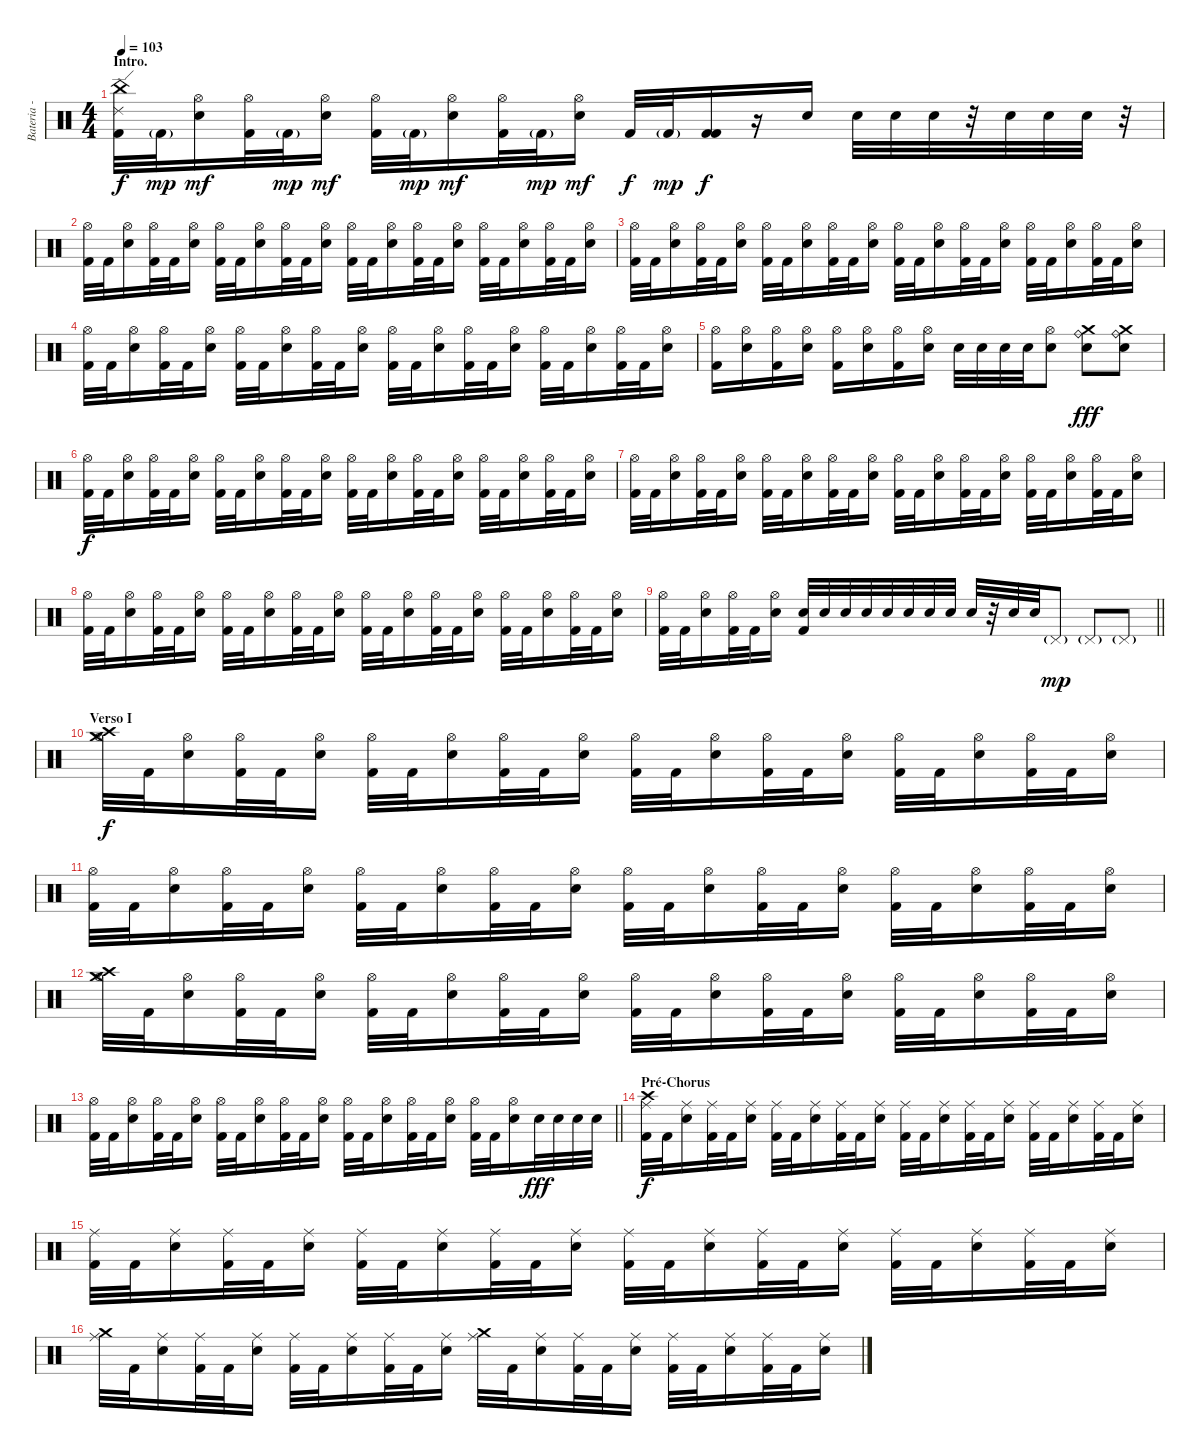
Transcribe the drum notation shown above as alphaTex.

\track ("Bateria - Larzon" "Bateria - ") {instrument percussion}
\staff {score}
\articulation defaults
\ts (4 4)
\section ("" "Intro.")
\tempo 103
\clef neutral
\ks c
("Kick (hit) 2" "Ride (edge) 2" "China (hit)").32{dy f} "Kick (hit) 2"{g}.32{dy mp} ("Snare (hit) 2" "Hi-Hat (open)").16{dy mf} ("Kick (hit) 2" "Hi-Hat (open)").32 "Kick (hit) 2"{g}.32{dy mp} ("Snare (hit) 2" "Hi-Hat (open)").16{dy mf} ("Kick (hit) 2" "Hi-Hat (open)").32 "Kick (hit) 2"{g}.32{dy mp} ("Snare (hit) 2" "Hi-Hat (open)").16{dy mf} ("Kick (hit) 2" "Hi-Hat (open)").32 "Kick (hit) 2"{g}.32{dy mp} ("Snare (hit) 2" "Hi-Hat (open)").16{dy mf} "Kick (hit) 2".32{dy f} "Kick (hit) 2"{g}.32{dy mp} ("Kick (hit) 2" "Kick (hit) 2").16{dy f} r.16 "Snare (hit) 2".16 "Snare (hit) 2".32 "Snare (hit) 2".32 "Snare (hit) 2".32 r.32 "Snare (hit) 2".32 "Snare (hit) 2".32 "Snare (hit) 2".32 r.32 |
("Kick (hit) 2" "Hi-Hat (open)").32 "Kick (hit) 2".32 ("Snare (hit) 2" "Hi-Hat (open)").16 ("Kick (hit) 2" "Hi-Hat (open)").32 "Kick (hit) 2".32 ("Snare (hit) 2" "Hi-Hat (open)").16 ("Kick (hit) 2" "Hi-Hat (open)").32 "Kick (hit) 2".32 ("Snare (hit) 2" "Hi-Hat (open)").16 ("Kick (hit) 2" "Hi-Hat (open)").32 "Kick (hit) 2".32 ("Snare (hit) 2" "Hi-Hat (open)").16 ("Kick (hit) 2" "Hi-Hat (open)").32 "Kick (hit) 2".32 ("Snare (hit) 2" "Hi-Hat (open)").16 ("Kick (hit) 2" "Hi-Hat (open)").32 "Kick (hit) 2".32 ("Snare (hit) 2" "Hi-Hat (open)").16 ("Kick (hit) 2" "Hi-Hat (open)").32 "Kick (hit) 2".32 ("Snare (hit) 2" "Hi-Hat (open)").16 ("Kick (hit) 2" "Hi-Hat (open)").32 "Kick (hit) 2".32 ("Snare (hit) 2" "Hi-Hat (open)").16 |
("Kick (hit) 2" "Hi-Hat (open)").32 "Kick (hit) 2".32 ("Snare (hit) 2" "Hi-Hat (open)").16 ("Kick (hit) 2" "Hi-Hat (open)").32 "Kick (hit) 2".32 ("Snare (hit) 2" "Hi-Hat (open)").16 ("Kick (hit) 2" "Hi-Hat (open)").32 "Kick (hit) 2".32 ("Snare (hit) 2" "Hi-Hat (open)").16 ("Kick (hit) 2" "Hi-Hat (open)").32 "Kick (hit) 2".32 ("Snare (hit) 2" "Hi-Hat (open)").16 ("Kick (hit) 2" "Hi-Hat (open)").32 "Kick (hit) 2".32 ("Snare (hit) 2" "Hi-Hat (open)").16 ("Kick (hit) 2" "Hi-Hat (open)").32 "Kick (hit) 2".32 ("Snare (hit) 2" "Hi-Hat (open)").16 ("Kick (hit) 2" "Hi-Hat (open)").32 "Kick (hit) 2".32 ("Snare (hit) 2" "Hi-Hat (open)").16 ("Kick (hit) 2" "Hi-Hat (open)").32 "Kick (hit) 2".32 ("Snare (hit) 2" "Hi-Hat (open)").16 |
("Kick (hit) 2" "Hi-Hat (open)").32 "Kick (hit) 2".32 ("Snare (hit) 2" "Hi-Hat (open)").16 ("Kick (hit) 2" "Hi-Hat (open)").32 "Kick (hit) 2".32 ("Snare (hit) 2" "Hi-Hat (open)").16 ("Kick (hit) 2" "Hi-Hat (open)").32 "Kick (hit) 2".32 ("Snare (hit) 2" "Hi-Hat (open)").16 ("Kick (hit) 2" "Hi-Hat (open)").32 "Kick (hit) 2".32 ("Snare (hit) 2" "Hi-Hat (open)").16 ("Kick (hit) 2" "Hi-Hat (open)").32 "Kick (hit) 2".32 ("Snare (hit) 2" "Hi-Hat (open)").16 ("Kick (hit) 2" "Hi-Hat (open)").32 "Kick (hit) 2".32 ("Snare (hit) 2" "Hi-Hat (open)").16 ("Kick (hit) 2" "Hi-Hat (open)").32 "Kick (hit) 2".32 ("Snare (hit) 2" "Hi-Hat (open)").16 ("Kick (hit) 2" "Hi-Hat (open)").32 "Kick (hit) 2".32 ("Snare (hit) 2" "Hi-Hat (open)").16 |
("Kick (hit) 2" "Hi-Hat (open)").16 ("Snare (hit) 2" "Hi-Hat (open)").16 ("Kick (hit) 2" "Hi-Hat (open)").16 ("Snare (hit) 2" "Hi-Hat (open)").16 ("Kick (hit) 2" "Hi-Hat (open)").16 ("Snare (hit) 2" "Hi-Hat (open)").16 ("Kick (hit) 2" "Hi-Hat (open)").16 ("Snare (hit) 2" "Hi-Hat (open)").16 "Snare (hit) 2".32 "Snare (hit) 2".32 "Snare (hit) 2".32 "Snare (hit) 2".32 ("Snare (hit) 2" "Hi-Hat (open)").8 ("Snare (hit) 2" "Ride (bell)" "Crash medium (hit)").8{dy fff} ("Snare (hit) 2" "Ride (bell)" "Crash medium (hit)").8 |
("Kick (hit) 2" "Hi-Hat (open)").32{dy f} "Kick (hit) 2".32 ("Snare (hit) 2" "Hi-Hat (open)").16 ("Kick (hit) 2" "Hi-Hat (open)").32 "Kick (hit) 2".32 ("Snare (hit) 2" "Hi-Hat (open)").16 ("Kick (hit) 2" "Hi-Hat (open)").32 "Kick (hit) 2".32 ("Snare (hit) 2" "Hi-Hat (open)").16 ("Kick (hit) 2" "Hi-Hat (open)").32 "Kick (hit) 2".32 ("Snare (hit) 2" "Hi-Hat (open)").16 ("Kick (hit) 2" "Hi-Hat (open)").32 "Kick (hit) 2".32 ("Snare (hit) 2" "Hi-Hat (open)").16 ("Kick (hit) 2" "Hi-Hat (open)").32 "Kick (hit) 2".32 ("Snare (hit) 2" "Hi-Hat (open)").16 ("Kick (hit) 2" "Hi-Hat (open)").32 "Kick (hit) 2".32 ("Snare (hit) 2" "Hi-Hat (open)").16 ("Kick (hit) 2" "Hi-Hat (open)").32 "Kick (hit) 2".32 ("Snare (hit) 2" "Hi-Hat (open)").16 |
("Kick (hit) 2" "Hi-Hat (open)").32 "Kick (hit) 2".32 ("Snare (hit) 2" "Hi-Hat (open)").16 ("Kick (hit) 2" "Hi-Hat (open)").32 "Kick (hit) 2".32 ("Snare (hit) 2" "Hi-Hat (open)").16 ("Kick (hit) 2" "Hi-Hat (open)").32 "Kick (hit) 2".32 ("Snare (hit) 2" "Hi-Hat (open)").16 ("Kick (hit) 2" "Hi-Hat (open)").32 "Kick (hit) 2".32 ("Snare (hit) 2" "Hi-Hat (open)").16 ("Kick (hit) 2" "Hi-Hat (open)").32 "Kick (hit) 2".32 ("Snare (hit) 2" "Hi-Hat (open)").16 ("Kick (hit) 2" "Hi-Hat (open)").32 "Kick (hit) 2".32 ("Snare (hit) 2" "Hi-Hat (open)").16 ("Kick (hit) 2" "Hi-Hat (open)").32 "Kick (hit) 2".32 ("Snare (hit) 2" "Hi-Hat (open)").16 ("Kick (hit) 2" "Hi-Hat (open)").32 "Kick (hit) 2".32 ("Snare (hit) 2" "Hi-Hat (open)").16 |
("Kick (hit) 2" "Hi-Hat (open)").32 "Kick (hit) 2".32 ("Snare (hit) 2" "Hi-Hat (open)").16 ("Kick (hit) 2" "Hi-Hat (open)").32 "Kick (hit) 2".32 ("Snare (hit) 2" "Hi-Hat (open)").16 ("Kick (hit) 2" "Hi-Hat (open)").32 "Kick (hit) 2".32 ("Snare (hit) 2" "Hi-Hat (open)").16 ("Kick (hit) 2" "Hi-Hat (open)").32 "Kick (hit) 2".32 ("Snare (hit) 2" "Hi-Hat (open)").16 ("Kick (hit) 2" "Hi-Hat (open)").32 "Kick (hit) 2".32 ("Snare (hit) 2" "Hi-Hat (open)").16 ("Kick (hit) 2" "Hi-Hat (open)").32 "Kick (hit) 2".32 ("Snare (hit) 2" "Hi-Hat (open)").16 ("Kick (hit) 2" "Hi-Hat (open)").32 "Kick (hit) 2".32 ("Snare (hit) 2" "Hi-Hat (open)").16 ("Kick (hit) 2" "Hi-Hat (open)").32 "Kick (hit) 2".32 ("Snare (hit) 2" "Hi-Hat (open)").16 |
\barLineRight lightlight
("Kick (hit) 2" "Hi-Hat (open)").32 "Kick (hit) 2".32 ("Snare (hit) 2" "Hi-Hat (open)").16 ("Kick (hit) 2" "Hi-Hat (open)").32 "Kick (hit) 2".32 ("Snare (hit) 2" "Hi-Hat (open)").16 ("Snare (hit) 2" "Kick (hit) 2").32 "Snare (hit) 2".32 "Snare (hit) 2".32 "Snare (hit) 2".32 "Snare (hit) 2".32 "Snare (hit) 2".32 "Snare (hit) 2".32 "Snare (hit) 2".32 "Snare (hit) 2".32 r.32 "Snare (hit) 2".32 "Snare (hit) 2".32 "Pedal Hi-Hat (hit)"{g}.8{dy mp} "Pedal Hi-Hat (hit)"{g}.8 "Pedal Hi-Hat (hit)"{g}.8 |
\section ("" "Verso I")
("Crash high (hit)" "Crash medium (hit)" "Hi-Hat (open)").32{dy f} "Kick (hit) 2".32 ("Snare (hit) 2" "Hi-Hat (open)").16 ("Kick (hit) 2" "Hi-Hat (open)").32 "Kick (hit) 2".32 ("Snare (hit) 2" "Hi-Hat (open)").16 ("Kick (hit) 2" "Hi-Hat (open)").32 "Kick (hit) 2".32 ("Snare (hit) 2" "Hi-Hat (open)").16 ("Kick (hit) 2" "Hi-Hat (open)").32 "Kick (hit) 2".32 ("Snare (hit) 2" "Hi-Hat (open)").16 ("Kick (hit) 2" "Hi-Hat (open)").32 "Kick (hit) 2".32 ("Snare (hit) 2" "Hi-Hat (open)").16 ("Kick (hit) 2" "Hi-Hat (open)").32 "Kick (hit) 2".32 ("Snare (hit) 2" "Hi-Hat (open)").16 ("Kick (hit) 2" "Hi-Hat (open)").32 "Kick (hit) 2".32 ("Snare (hit) 2" "Hi-Hat (open)").16 ("Kick (hit) 2" "Hi-Hat (open)").32 "Kick (hit) 2".32 ("Snare (hit) 2" "Hi-Hat (open)").16 |
("Kick (hit) 2" "Hi-Hat (open)").32 "Kick (hit) 2".32 ("Snare (hit) 2" "Hi-Hat (open)").16 ("Kick (hit) 2" "Hi-Hat (open)").32 "Kick (hit) 2".32 ("Snare (hit) 2" "Hi-Hat (open)").16 ("Kick (hit) 2" "Hi-Hat (open)").32 "Kick (hit) 2".32 ("Snare (hit) 2" "Hi-Hat (open)").16 ("Kick (hit) 2" "Hi-Hat (open)").32 "Kick (hit) 2".32 ("Snare (hit) 2" "Hi-Hat (open)").16 ("Kick (hit) 2" "Hi-Hat (open)").32 "Kick (hit) 2".32 ("Snare (hit) 2" "Hi-Hat (open)").16 ("Kick (hit) 2" "Hi-Hat (open)").32 "Kick (hit) 2".32 ("Snare (hit) 2" "Hi-Hat (open)").16 ("Kick (hit) 2" "Hi-Hat (open)").32 "Kick (hit) 2".32 ("Snare (hit) 2" "Hi-Hat (open)").16 ("Kick (hit) 2" "Hi-Hat (open)").32 "Kick (hit) 2".32 ("Snare (hit) 2" "Hi-Hat (open)").16 |
("Crash high (hit)" "Crash medium (hit)" "Hi-Hat (open)").32 "Kick (hit) 2".32 ("Snare (hit) 2" "Hi-Hat (open)").16 ("Kick (hit) 2" "Hi-Hat (open)").32 "Kick (hit) 2".32 ("Snare (hit) 2" "Hi-Hat (open)").16 ("Kick (hit) 2" "Hi-Hat (open)").32 "Kick (hit) 2".32 ("Snare (hit) 2" "Hi-Hat (open)").16 ("Kick (hit) 2" "Hi-Hat (open)").32 "Kick (hit) 2".32 ("Snare (hit) 2" "Hi-Hat (open)").16 ("Kick (hit) 2" "Hi-Hat (open)").32 "Kick (hit) 2".32 ("Snare (hit) 2" "Hi-Hat (open)").16 ("Kick (hit) 2" "Hi-Hat (open)").32 "Kick (hit) 2".32 ("Snare (hit) 2" "Hi-Hat (open)").16 ("Kick (hit) 2" "Hi-Hat (open)").32 "Kick (hit) 2".32 ("Snare (hit) 2" "Hi-Hat (open)").16 ("Kick (hit) 2" "Hi-Hat (open)").32 "Kick (hit) 2".32 ("Snare (hit) 2" "Hi-Hat (open)").16 |
\barLineRight lightlight
("Kick (hit) 2" "Hi-Hat (open)").32 "Kick (hit) 2".32 ("Snare (hit) 2" "Hi-Hat (open)").16 ("Kick (hit) 2" "Hi-Hat (open)").32 "Kick (hit) 2".32 ("Snare (hit) 2" "Hi-Hat (open)").16 ("Kick (hit) 2" "Hi-Hat (open)").32 "Kick (hit) 2".32 ("Snare (hit) 2" "Hi-Hat (open)").16 ("Kick (hit) 2" "Hi-Hat (open)").32 "Kick (hit) 2".32 ("Snare (hit) 2" "Hi-Hat (open)").16 ("Kick (hit) 2" "Hi-Hat (open)").32 "Kick (hit) 2".32 ("Snare (hit) 2" "Hi-Hat (open)").16 ("Kick (hit) 2" "Hi-Hat (open)").32 "Kick (hit) 2".32 ("Snare (hit) 2" "Hi-Hat (open)").16 ("Kick (hit) 2" "Hi-Hat (open)").32 "Kick (hit) 2".32 ("Snare (hit) 2" "Hi-Hat (open)").16 "Snare (hit) 2".32{dy fff} "Snare (hit) 2".32 "Snare (hit) 2".32 "Snare (hit) 2".32 |
\section ("" "Pré-Chorus")
("Kick (hit) 2" "Crash high (hit)" "Ride (middle)").32{dy f} "Kick (hit) 2".32 ("Snare (hit) 2" "Ride (middle)").16 ("Kick (hit) 2" "Ride (middle)").32 "Kick (hit) 2".32 ("Snare (hit) 2" "Ride (middle)").16 ("Kick (hit) 2" "Ride (middle)").32 "Kick (hit) 2".32 ("Snare (hit) 2" "Ride (middle)").16 ("Kick (hit) 2" "Ride (middle)").32 "Kick (hit) 2".32 ("Snare (hit) 2" "Ride (middle)").16 ("Kick (hit) 2" "Ride (middle)").32 "Kick (hit) 2".32 ("Snare (hit) 2" "Ride (middle)").16 ("Kick (hit) 2" "Ride (middle)").32 "Kick (hit) 2".32 ("Snare (hit) 2" "Ride (middle)").16 ("Kick (hit) 2" "Ride (middle)").32 "Kick (hit) 2".32 ("Snare (hit) 2" "Ride (middle)").16 ("Kick (hit) 2" "Ride (middle)").32 "Kick (hit) 2".32 ("Snare (hit) 2" "Ride (middle)").16 |
("Kick (hit) 2" "Ride (middle)").32 "Kick (hit) 2".32 ("Snare (hit) 2" "Ride (middle)").16 ("Kick (hit) 2" "Ride (middle)").32 "Kick (hit) 2".32 ("Snare (hit) 2" "Ride (middle)").16 ("Kick (hit) 2" "Ride (middle)").32 "Kick (hit) 2".32 ("Snare (hit) 2" "Ride (middle)").16 ("Kick (hit) 2" "Ride (middle)").32 "Kick (hit) 2".32 ("Snare (hit) 2" "Ride (middle)").16 ("Kick (hit) 2" "Ride (middle)").32 "Kick (hit) 2".32 ("Snare (hit) 2" "Ride (middle)").16 ("Kick (hit) 2" "Ride (middle)").32 "Kick (hit) 2".32 ("Snare (hit) 2" "Ride (middle)").16 ("Kick (hit) 2" "Ride (middle)").32 "Kick (hit) 2".32 ("Snare (hit) 2" "Ride (middle)").16 ("Kick (hit) 2" "Ride (middle)").32 "Kick (hit) 2".32 ("Snare (hit) 2" "Ride (middle)").16 |
("Crash medium (hit)" "Ride (middle)").32 "Kick (hit) 2".32 ("Snare (hit) 2" "Ride (middle)").16 ("Kick (hit) 2" "Ride (middle)").32 "Kick (hit) 2".32 ("Snare (hit) 2" "Ride (middle)").16 ("Kick (hit) 2" "Ride (middle)").32 "Kick (hit) 2".32 ("Snare (hit) 2" "Ride (middle)").16 ("Kick (hit) 2" "Ride (middle)").32 "Kick (hit) 2".32 ("Snare (hit) 2" "Ride (middle)").16 ("Crash medium (hit)" "Ride (middle)").32 "Kick (hit) 2".32 ("Snare (hit) 2" "Ride (middle)").16 ("Kick (hit) 2" "Ride (middle)").32 "Kick (hit) 2".32 ("Snare (hit) 2" "Ride (middle)").16 ("Kick (hit) 2" "Ride (middle)").32 "Kick (hit) 2".32 ("Snare (hit) 2" "Ride (middle)").16 ("Kick (hit) 2" "Ride (middle)").32 "Kick (hit) 2".32 ("Snare (hit) 2" "Ride (middle)").16
